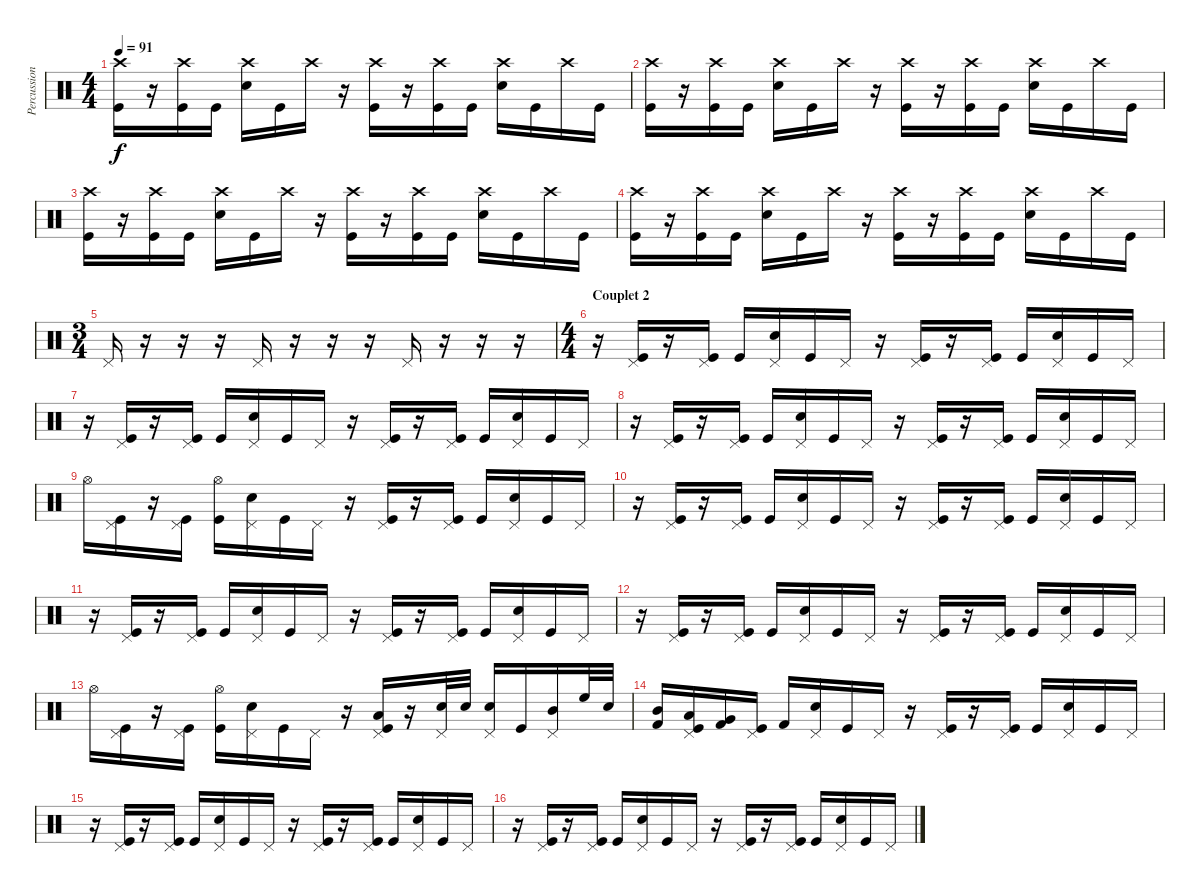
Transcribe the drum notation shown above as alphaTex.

\track ("Percussions (Nejo)" "Percussion") {instrument percussion}
\staff {score}
\articulation defaults
\ts (4 4)
\tempo 91
\clef neutral
\ks c
("Crash high (hit)" "Kick (hit)").16{dy f} r.16 ("Crash high (hit)" "Kick (hit)").16 "Kick (hit)".16 ("Crash high (hit)" "Electric Snare (hit)").16 "Kick (hit)".16 "Crash high (hit)".16 r.16 ("Crash high (hit)" "Kick (hit)").16 r.16 ("Crash high (hit)" "Kick (hit)").16 "Kick (hit)".16 ("Crash high (hit)" "Electric Snare (hit)").16 "Kick (hit)".16 "Crash high (hit)".16 "Kick (hit)".16 |
("Crash high (hit)" "Kick (hit)").16 r.16 ("Crash high (hit)" "Kick (hit)").16 "Kick (hit)".16 ("Crash high (hit)" "Electric Snare (hit)").16 "Kick (hit)".16 "Crash high (hit)".16 r.16 ("Crash high (hit)" "Kick (hit)").16 r.16 ("Crash high (hit)" "Kick (hit)").16 "Kick (hit)".16 ("Crash high (hit)" "Electric Snare (hit)").16 "Kick (hit)".16 "Crash high (hit)".16 "Kick (hit)".16 |
("Crash high (hit)" "Kick (hit)").16 r.16 ("Crash high (hit)" "Kick (hit)").16 "Kick (hit)".16 ("Crash high (hit)" "Electric Snare (hit)").16 "Kick (hit)".16 "Crash high (hit)".16 r.16 ("Crash high (hit)" "Kick (hit)").16 r.16 ("Crash high (hit)" "Kick (hit)").16 "Kick (hit)".16 ("Crash high (hit)" "Electric Snare (hit)").16 "Kick (hit)".16 "Crash high (hit)".16 "Kick (hit)".16 |
("Crash high (hit)" "Kick (hit)").16 r.16 ("Crash high (hit)" "Kick (hit)").16 "Kick (hit)".16 ("Crash high (hit)" "Electric Snare (hit)").16 "Kick (hit)".16 "Crash high (hit)".16 r.16 ("Crash high (hit)" "Kick (hit)").16 r.16 ("Crash high (hit)" "Kick (hit)").16 "Kick (hit)".16 ("Crash high (hit)" "Electric Snare (hit)").16 "Kick (hit)".16 "Crash high (hit)".16 "Kick (hit)".16 |
\ts (3 4)
"Pedal Hi-Hat (hit)".16 r.16 r.16 r.16 "Pedal Hi-Hat (hit)".16 r.16 r.16 r.16 "Pedal Hi-Hat (hit)".16 r.16 r.16 r.16 |
\ts (4 4)
\section ("" "Couplet 2")
r.16 ("Pedal Hi-Hat (hit)" "Kick (hit)").16 r.16 ("Pedal Hi-Hat (hit)" "Kick (hit)").16 "Kick (hit)".16 ("Pedal Hi-Hat (hit)" "Electric Snare (hit)").16 "Kick (hit)".16 "Pedal Hi-Hat (hit)".16 r.16 ("Pedal Hi-Hat (hit)" "Kick (hit)").16 r.16 ("Pedal Hi-Hat (hit)" "Kick (hit)").16 "Kick (hit)".16 ("Pedal Hi-Hat (hit)" "Electric Snare (hit)").16 "Kick (hit)".16 "Pedal Hi-Hat (hit)".16 |
r.16 ("Pedal Hi-Hat (hit)" "Kick (hit)").16 r.16 ("Pedal Hi-Hat (hit)" "Kick (hit)").16 "Kick (hit)".16 ("Pedal Hi-Hat (hit)" "Electric Snare (hit)").16 "Kick (hit)".16 "Pedal Hi-Hat (hit)".16 r.16 ("Pedal Hi-Hat (hit)" "Kick (hit)").16 r.16 ("Pedal Hi-Hat (hit)" "Kick (hit)").16 "Kick (hit)".16 ("Pedal Hi-Hat (hit)" "Electric Snare (hit)").16 "Kick (hit)".16 "Pedal Hi-Hat (hit)".16 |
r.16 ("Pedal Hi-Hat (hit)" "Kick (hit)").16 r.16 ("Pedal Hi-Hat (hit)" "Kick (hit)").16 "Kick (hit)".16 ("Pedal Hi-Hat (hit)" "Electric Snare (hit)").16 "Kick (hit)".16 "Pedal Hi-Hat (hit)".16 r.16 ("Pedal Hi-Hat (hit)" "Kick (hit)").16 r.16 ("Pedal Hi-Hat (hit)" "Kick (hit)").16 "Kick (hit)".16 ("Pedal Hi-Hat (hit)" "Electric Snare (hit)").16 "Kick (hit)".16 "Pedal Hi-Hat (hit)".16 |
"Hi-Hat (open)".16 ("Pedal Hi-Hat (hit)" "Kick (hit)").16 r.16 ("Pedal Hi-Hat (hit)" "Kick (hit)").16 ("Hi-Hat (open)" "Kick (hit)").16 ("Pedal Hi-Hat (hit)" "Electric Snare (hit)").16 "Kick (hit)".16 "Pedal Hi-Hat (hit)".16 r.16 ("Pedal Hi-Hat (hit)" "Kick (hit)").16 r.16 ("Pedal Hi-Hat (hit)" "Kick (hit)").16 "Kick (hit)".16 ("Pedal Hi-Hat (hit)" "Electric Snare (hit)").16 "Kick (hit)".16 "Pedal Hi-Hat (hit)".16 |
r.16 ("Pedal Hi-Hat (hit)" "Kick (hit)").16 r.16 ("Pedal Hi-Hat (hit)" "Kick (hit)").16 "Kick (hit)".16 ("Pedal Hi-Hat (hit)" "Electric Snare (hit)").16 "Kick (hit)".16 "Pedal Hi-Hat (hit)".16 r.16 ("Pedal Hi-Hat (hit)" "Kick (hit)").16 r.16 ("Pedal Hi-Hat (hit)" "Kick (hit)").16 "Kick (hit)".16 ("Pedal Hi-Hat (hit)" "Electric Snare (hit)").16 "Kick (hit)".16 "Pedal Hi-Hat (hit)".16 |
r.16 ("Pedal Hi-Hat (hit)" "Kick (hit)").16 r.16 ("Pedal Hi-Hat (hit)" "Kick (hit)").16 "Kick (hit)".16 ("Pedal Hi-Hat (hit)" "Electric Snare (hit)").16 "Kick (hit)".16 "Pedal Hi-Hat (hit)".16 r.16 ("Pedal Hi-Hat (hit)" "Kick (hit)").16 r.16 ("Pedal Hi-Hat (hit)" "Kick (hit)").16 "Kick (hit)".16 ("Pedal Hi-Hat (hit)" "Electric Snare (hit)").16 "Kick (hit)".16 "Pedal Hi-Hat (hit)".16 |
r.16 ("Pedal Hi-Hat (hit)" "Kick (hit)").16 r.16 ("Pedal Hi-Hat (hit)" "Kick (hit)").16 "Kick (hit)".16 ("Pedal Hi-Hat (hit)" "Electric Snare (hit)").16 "Kick (hit)".16 "Pedal Hi-Hat (hit)".16 r.16 ("Pedal Hi-Hat (hit)" "Kick (hit)").16 r.16 ("Pedal Hi-Hat (hit)" "Kick (hit)").16 "Kick (hit)".16 ("Pedal Hi-Hat (hit)" "Electric Snare (hit)").16 "Kick (hit)".16 "Pedal Hi-Hat (hit)".16 |
"Hi-Hat (open)".16 ("Pedal Hi-Hat (hit)" "Kick (hit)").16 r.16 ("Pedal Hi-Hat (hit)" "Kick (hit)").16 ("Hi-Hat (open)" "Kick (hit)").16 ("Pedal Hi-Hat (hit)" "Electric Snare (hit)").16 "Kick (hit)".16 "Pedal Hi-Hat (hit)".16 r.16 ("Pedal Hi-Hat (hit)" "Low Tom (hit)" "Kick (hit)").16 r.16 ("Pedal Hi-Hat (hit)" "Electric Snare (hit)").32 "Electric Snare (hit)".32 ("Pedal Hi-Hat (hit)" "Electric Snare (hit)").16 "Kick (hit)".16 ("Pedal Hi-Hat (hit)" "Mid Tom (hit)").16 "High Floor Tom (hit)".32 "Snare (hit) 2".32 |
("Mid Tom (hit)" "Kick (hit) 2").16 ("Pedal Hi-Hat (hit)" "Low Tom (hit)" "Kick (hit)").16 ("Very Low Tom (hit)" "Kick (hit) 2").16 ("Pedal Hi-Hat (hit)" "Kick (hit)").16 "Kick (hit) 2".16 ("Pedal Hi-Hat (hit)" "Electric Snare (hit)").16 "Kick (hit)".16 "Pedal Hi-Hat (hit)".16 r.16 ("Pedal Hi-Hat (hit)" "Kick (hit)").16 r.16 ("Pedal Hi-Hat (hit)" "Kick (hit)").16 "Kick (hit)".16 ("Pedal Hi-Hat (hit)" "Electric Snare (hit)").16 "Kick (hit)".16 "Pedal Hi-Hat (hit)".16 |
r.16 ("Pedal Hi-Hat (hit)" "Kick (hit)").16 r.16 ("Pedal Hi-Hat (hit)" "Kick (hit)").16 "Kick (hit)".16 ("Pedal Hi-Hat (hit)" "Electric Snare (hit)").16 "Kick (hit)".16 "Pedal Hi-Hat (hit)".16 r.16 ("Pedal Hi-Hat (hit)" "Kick (hit)").16 r.16 ("Pedal Hi-Hat (hit)" "Kick (hit)").16 "Kick (hit)".16 ("Pedal Hi-Hat (hit)" "Electric Snare (hit)").16 "Kick (hit)".16 "Pedal Hi-Hat (hit)".16 |
r.16 ("Pedal Hi-Hat (hit)" "Kick (hit)").16 r.16 ("Pedal Hi-Hat (hit)" "Kick (hit)").16 "Kick (hit)".16 ("Pedal Hi-Hat (hit)" "Electric Snare (hit)").16 "Kick (hit)".16 "Pedal Hi-Hat (hit)".16 r.16 ("Pedal Hi-Hat (hit)" "Kick (hit)").16 r.16 ("Pedal Hi-Hat (hit)" "Kick (hit)").16 "Kick (hit)".16 ("Pedal Hi-Hat (hit)" "Electric Snare (hit)").16 "Kick (hit)".16 "Pedal Hi-Hat (hit)".16
